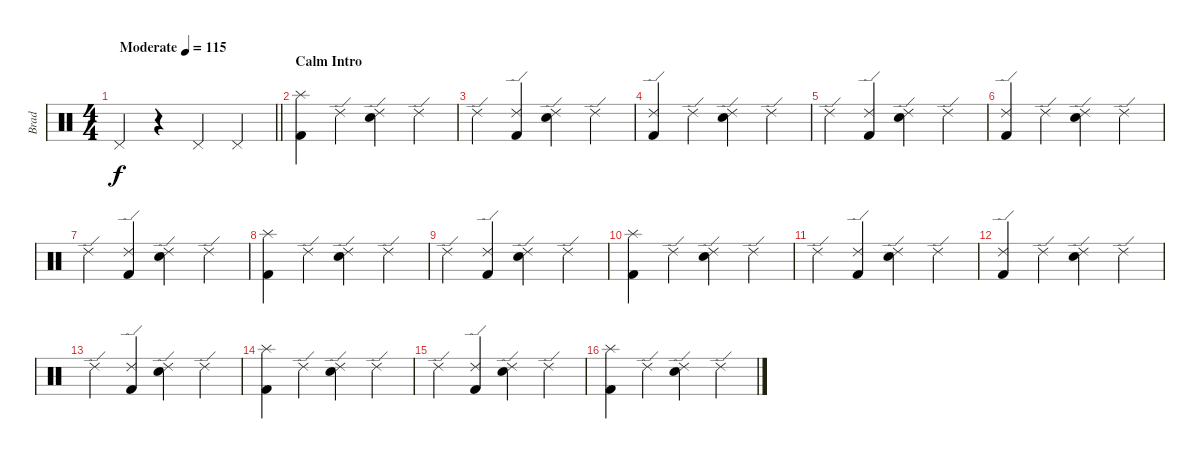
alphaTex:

\track ("Brad" "Brad") {instrument percussion}
\staff {score}
\articulation defaults
\ts (4 4)
\tempo (115 "Moderate")
\clef neutral
\barLineRight lightlight
\ks c "Pedal Hi-Hat (hit)".4{dy f}
r.4 "Pedal Hi-Hat (hit)".4 "Pedal Hi-Hat (hit)".4 |
\section ("" "Calm Intro")
("Splash (hit)" "Kick (hit) 2").4 "Ride (edge) 2".4 ("Ride (edge) 2" "Electric Snare (hit)").4 "Ride (edge) 2".4 |
"Ride (edge) 2".4 ("Ride (edge) 2" "Kick (hit) 2").4 ("Ride (edge) 2" "Electric Snare (hit)").4 "Ride (edge) 2".4 |
("Ride (edge) 2" "Kick (hit) 2").4 "Ride (edge) 2".4 ("Ride (edge) 2" "Electric Snare (hit)").4 "Ride (edge) 2".4 |
"Ride (edge) 2".4 ("Ride (edge) 2" "Kick (hit) 2").4 ("Ride (edge) 2" "Electric Snare (hit)").4 "Ride (edge) 2".4 |
("Ride (edge) 2" "Kick (hit) 2").4 "Ride (edge) 2".4 ("Ride (edge) 2" "Electric Snare (hit)").4 "Ride (edge) 2".4 |
"Ride (edge) 2".4 ("Ride (edge) 2" "Kick (hit) 2").4 ("Ride (edge) 2" "Electric Snare (hit)").4 "Ride (edge) 2".4 |
("Splash (hit)" "Kick (hit) 2").4 "Ride (edge) 2".4 ("Ride (edge) 2" "Electric Snare (hit)").4 "Ride (edge) 2".4 |
"Ride (edge) 2".4 ("Ride (edge) 2" "Kick (hit) 2").4 ("Ride (edge) 2" "Electric Snare (hit)").4 "Ride (edge) 2".4 |
("Splash (hit)" "Kick (hit) 2").4 "Ride (edge) 2".4 ("Ride (edge) 2" "Electric Snare (hit)").4 "Ride (edge) 2".4 |
"Ride (edge) 2".4 ("Ride (edge) 2" "Kick (hit) 2").4 ("Ride (edge) 2" "Electric Snare (hit)").4 "Ride (edge) 2".4 |
("Ride (edge) 2" "Kick (hit) 2").4 "Ride (edge) 2".4 ("Ride (edge) 2" "Electric Snare (hit)").4 "Ride (edge) 2".4 |
"Ride (edge) 2".4 ("Ride (edge) 2" "Kick (hit) 2").4 ("Ride (edge) 2" "Electric Snare (hit)").4 "Ride (edge) 2".4 |
("Splash (hit)" "Kick (hit) 2").4 "Ride (edge) 2".4 ("Ride (edge) 2" "Electric Snare (hit)").4 "Ride (edge) 2".4 |
"Ride (edge) 2".4 ("Ride (edge) 2" "Kick (hit) 2").4 ("Ride (edge) 2" "Electric Snare (hit)").4 "Ride (edge) 2".4 |
("Splash (hit)" "Kick (hit) 2").4 "Ride (edge) 2".4 ("Ride (edge) 2" "Electric Snare (hit)").4 "Ride (edge) 2".4
